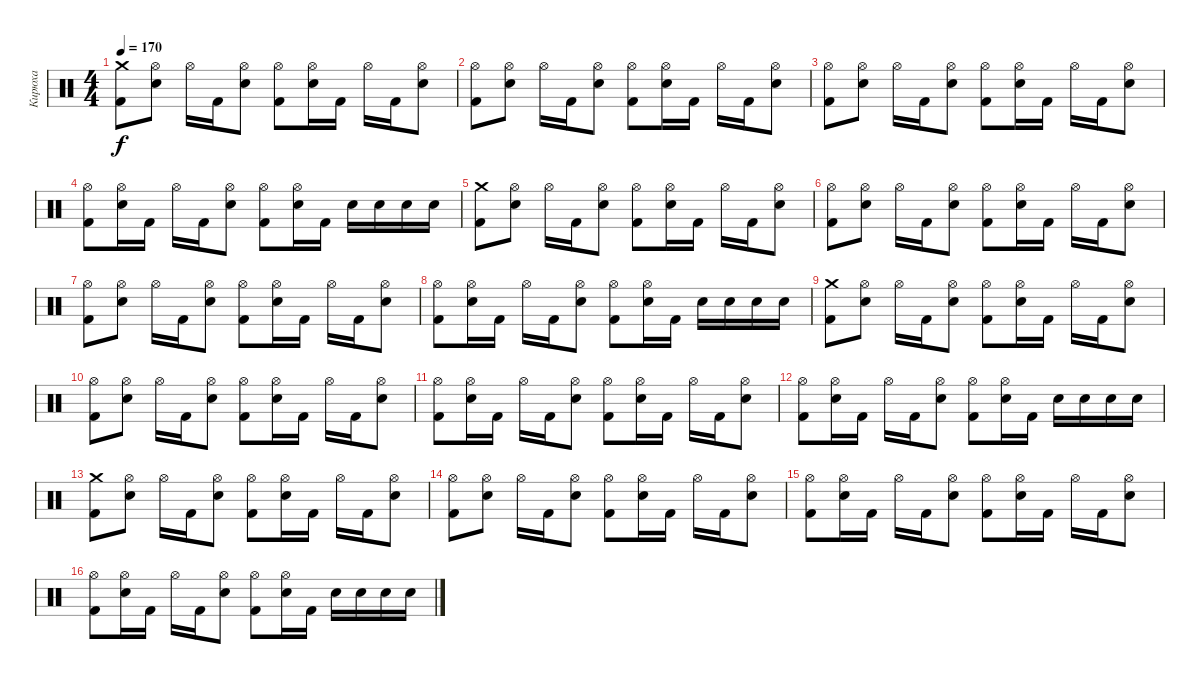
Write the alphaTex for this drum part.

\track ("Кирюха" "Кирюха") {instrument percussion}
\staff {score}
\articulation defaults
\ts (4 4)
\tempo 170
\clef neutral
\ks c
("Kick (hit) 2" "Crash medium (hit)").8{dy f} ("Electric Snare (hit)" "Hi-Hat (open)").8 "Hi-Hat (open)".16 "Kick (hit) 2".16 ("Electric Snare (hit)" "Hi-Hat (open)").8 ("Kick (hit) 2" "Hi-Hat (open)").8 ("Electric Snare (hit)" "Hi-Hat (open)").16 "Kick (hit) 2".16 "Hi-Hat (open)".16 "Kick (hit) 2".16 ("Electric Snare (hit)" "Hi-Hat (open)").8 |
("Kick (hit) 2" "Hi-Hat (open)").8 ("Electric Snare (hit)" "Hi-Hat (open)").8 "Hi-Hat (open)".16 "Kick (hit) 2".16 ("Electric Snare (hit)" "Hi-Hat (open)").8 ("Kick (hit) 2" "Hi-Hat (open)").8 ("Electric Snare (hit)" "Hi-Hat (open)").16 "Kick (hit) 2".16 "Hi-Hat (open)".16 "Kick (hit) 2".16 ("Electric Snare (hit)" "Hi-Hat (open)").8 |
("Kick (hit) 2" "Hi-Hat (open)").8 ("Electric Snare (hit)" "Hi-Hat (open)").8 "Hi-Hat (open)".16 "Kick (hit) 2".16 ("Electric Snare (hit)" "Hi-Hat (open)").8 ("Kick (hit) 2" "Hi-Hat (open)").8 ("Electric Snare (hit)" "Hi-Hat (open)").16 "Kick (hit) 2".16 "Hi-Hat (open)".16 "Kick (hit) 2".16 ("Electric Snare (hit)" "Hi-Hat (open)").8 |
("Kick (hit) 2" "Hi-Hat (open)").8 ("Electric Snare (hit)" "Hi-Hat (open)").16 "Kick (hit) 2".16 "Hi-Hat (open)".16 "Kick (hit) 2".16 ("Electric Snare (hit)" "Hi-Hat (open)").8 ("Kick (hit) 2" "Hi-Hat (open)").8 ("Electric Snare (hit)" "Hi-Hat (open)").16 "Kick (hit) 2".16 "Electric Snare (hit)".16 "Electric Snare (hit)".16 "Electric Snare (hit)".16 "Electric Snare (hit)".16 |
("Kick (hit) 2" "Crash medium (hit)").8 ("Electric Snare (hit)" "Hi-Hat (open)").8 "Hi-Hat (open)".16 "Kick (hit) 2".16 ("Electric Snare (hit)" "Hi-Hat (open)").8 ("Kick (hit) 2" "Hi-Hat (open)").8 ("Electric Snare (hit)" "Hi-Hat (open)").16 "Kick (hit) 2".16 "Hi-Hat (open)".16 "Kick (hit) 2".16 ("Electric Snare (hit)" "Hi-Hat (open)").8 |
("Kick (hit) 2" "Hi-Hat (open)").8 ("Electric Snare (hit)" "Hi-Hat (open)").8 "Hi-Hat (open)".16 "Kick (hit) 2".16 ("Electric Snare (hit)" "Hi-Hat (open)").8 ("Kick (hit) 2" "Hi-Hat (open)").8 ("Electric Snare (hit)" "Hi-Hat (open)").16 "Kick (hit) 2".16 "Hi-Hat (open)".16 "Kick (hit) 2".16 ("Electric Snare (hit)" "Hi-Hat (open)").8 |
("Kick (hit) 2" "Hi-Hat (open)").8 ("Electric Snare (hit)" "Hi-Hat (open)").8 "Hi-Hat (open)".16 "Kick (hit) 2".16 ("Electric Snare (hit)" "Hi-Hat (open)").8 ("Kick (hit) 2" "Hi-Hat (open)").8 ("Electric Snare (hit)" "Hi-Hat (open)").16 "Kick (hit) 2".16 "Hi-Hat (open)".16 "Kick (hit) 2".16 ("Electric Snare (hit)" "Hi-Hat (open)").8 |
("Kick (hit) 2" "Hi-Hat (open)").8 ("Electric Snare (hit)" "Hi-Hat (open)").16 "Kick (hit) 2".16 "Hi-Hat (open)".16 "Kick (hit) 2".16 ("Electric Snare (hit)" "Hi-Hat (open)").8 ("Kick (hit) 2" "Hi-Hat (open)").8 ("Electric Snare (hit)" "Hi-Hat (open)").16 "Kick (hit) 2".16 "Electric Snare (hit)".16 "Electric Snare (hit)".16 "Electric Snare (hit)".16 "Electric Snare (hit)".16 |
("Kick (hit) 2" "Crash medium (hit)").8 ("Electric Snare (hit)" "Hi-Hat (open)").8 "Hi-Hat (open)".16 "Kick (hit) 2".16 ("Electric Snare (hit)" "Hi-Hat (open)").8 ("Kick (hit) 2" "Hi-Hat (open)").8 ("Electric Snare (hit)" "Hi-Hat (open)").16 "Kick (hit) 2".16 "Hi-Hat (open)".16 "Kick (hit) 2".16 ("Electric Snare (hit)" "Hi-Hat (open)").8 |
("Kick (hit) 2" "Hi-Hat (open)").8 ("Electric Snare (hit)" "Hi-Hat (open)").8 "Hi-Hat (open)".16 "Kick (hit) 2".16 ("Electric Snare (hit)" "Hi-Hat (open)").8 ("Kick (hit) 2" "Hi-Hat (open)").8 ("Electric Snare (hit)" "Hi-Hat (open)").16 "Kick (hit) 2".16 "Hi-Hat (open)".16 "Kick (hit) 2".16 ("Electric Snare (hit)" "Hi-Hat (open)").8 |
("Kick (hit) 2" "Hi-Hat (open)").8 ("Electric Snare (hit)" "Hi-Hat (open)").16 "Kick (hit) 2".16 "Hi-Hat (open)".16 "Kick (hit) 2".16 ("Electric Snare (hit)" "Hi-Hat (open)").8 ("Kick (hit) 2" "Hi-Hat (open)").8 ("Electric Snare (hit)" "Hi-Hat (open)").16 "Kick (hit) 2".16 "Hi-Hat (open)".16 "Kick (hit) 2".16 ("Electric Snare (hit)" "Hi-Hat (open)").8 |
("Kick (hit) 2" "Hi-Hat (open)").8 ("Electric Snare (hit)" "Hi-Hat (open)").16 "Kick (hit) 2".16 "Hi-Hat (open)".16 "Kick (hit) 2".16 ("Electric Snare (hit)" "Hi-Hat (open)").8 ("Kick (hit) 2" "Hi-Hat (open)").8 ("Electric Snare (hit)" "Hi-Hat (open)").16 "Kick (hit) 2".16 "Electric Snare (hit)".16 "Electric Snare (hit)".16 "Electric Snare (hit)".16 "Electric Snare (hit)".16 |
("Kick (hit) 2" "Crash medium (hit)").8 ("Electric Snare (hit)" "Hi-Hat (open)").8 "Hi-Hat (open)".16 "Kick (hit) 2".16 ("Electric Snare (hit)" "Hi-Hat (open)").8 ("Kick (hit) 2" "Hi-Hat (open)").8 ("Electric Snare (hit)" "Hi-Hat (open)").16 "Kick (hit) 2".16 "Hi-Hat (open)".16 "Kick (hit) 2".16 ("Electric Snare (hit)" "Hi-Hat (open)").8 |
("Kick (hit) 2" "Hi-Hat (open)").8 ("Electric Snare (hit)" "Hi-Hat (open)").8 "Hi-Hat (open)".16 "Kick (hit) 2".16 ("Electric Snare (hit)" "Hi-Hat (open)").8 ("Kick (hit) 2" "Hi-Hat (open)").8 ("Electric Snare (hit)" "Hi-Hat (open)").16 "Kick (hit) 2".16 "Hi-Hat (open)".16 "Kick (hit) 2".16 ("Electric Snare (hit)" "Hi-Hat (open)").8 |
("Kick (hit) 2" "Hi-Hat (open)").8 ("Electric Snare (hit)" "Hi-Hat (open)").16 "Kick (hit) 2".16 "Hi-Hat (open)".16 "Kick (hit) 2".16 ("Electric Snare (hit)" "Hi-Hat (open)").8 ("Kick (hit) 2" "Hi-Hat (open)").8 ("Electric Snare (hit)" "Hi-Hat (open)").16 "Kick (hit) 2".16 "Hi-Hat (open)".16 "Kick (hit) 2".16 ("Electric Snare (hit)" "Hi-Hat (open)").8 |
("Kick (hit) 2" "Hi-Hat (open)").8 ("Electric Snare (hit)" "Hi-Hat (open)").16 "Kick (hit) 2".16 "Hi-Hat (open)".16 "Kick (hit) 2".16 ("Electric Snare (hit)" "Hi-Hat (open)").8 ("Kick (hit) 2" "Hi-Hat (open)").8 ("Electric Snare (hit)" "Hi-Hat (open)").16 "Kick (hit) 2".16 "Electric Snare (hit)".16 "Electric Snare (hit)".16 "Electric Snare (hit)".16 "Electric Snare (hit)".16
